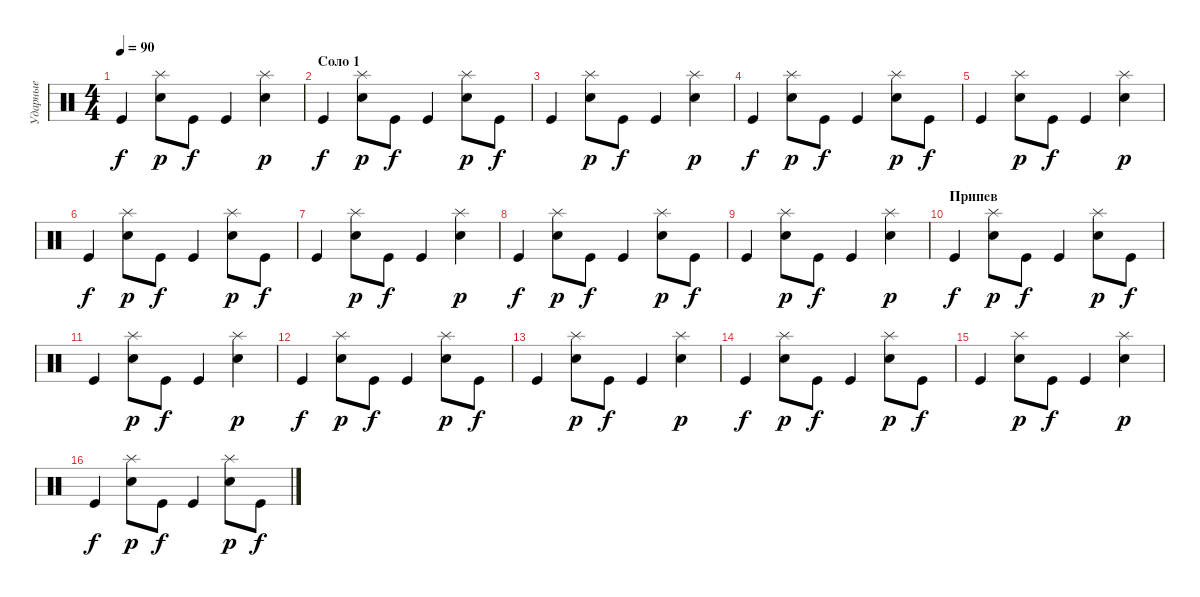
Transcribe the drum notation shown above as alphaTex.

\track ("Ударные" "Ударные") {instrument percussion}
\staff {score}
\articulation defaults
\ts (4 4)
\tempo 90
\clef neutral
\ks c "Kick (hit)".4{dy f}
("Splash (hit)" "Snare (hit) 2").8{dy p} "Kick (hit)".8{dy f} "Kick (hit)".4 ("Splash (hit)" "Snare (hit) 2").4{dy p} |
\section ("" "Соло 1")
"Kick (hit)".4{dy f} ("Splash (hit)" "Snare (hit) 2").8{dy p} "Kick (hit)".8{dy f} "Kick (hit)".4 ("Splash (hit)" "Snare (hit) 2").8{dy p} "Kick (hit)".8{dy f} |
"Kick (hit)".4 ("Splash (hit)" "Snare (hit) 2").8{dy p} "Kick (hit)".8{dy f} "Kick (hit)".4 ("Splash (hit)" "Snare (hit) 2").4{dy p} |
"Kick (hit)".4{dy f} ("Splash (hit)" "Snare (hit) 2").8{dy p} "Kick (hit)".8{dy f} "Kick (hit)".4 ("Splash (hit)" "Snare (hit) 2").8{dy p} "Kick (hit)".8{dy f} |
"Kick (hit)".4 ("Splash (hit)" "Snare (hit) 2").8{dy p} "Kick (hit)".8{dy f} "Kick (hit)".4 ("Splash (hit)" "Snare (hit) 2").4{dy p} |
"Kick (hit)".4{dy f} ("Splash (hit)" "Snare (hit) 2").8{dy p} "Kick (hit)".8{dy f} "Kick (hit)".4 ("Splash (hit)" "Snare (hit) 2").8{dy p} "Kick (hit)".8{dy f} |
"Kick (hit)".4 ("Splash (hit)" "Snare (hit) 2").8{dy p} "Kick (hit)".8{dy f} "Kick (hit)".4 ("Splash (hit)" "Snare (hit) 2").4{dy p} |
"Kick (hit)".4{dy f} ("Splash (hit)" "Snare (hit) 2").8{dy p} "Kick (hit)".8{dy f} "Kick (hit)".4 ("Splash (hit)" "Snare (hit) 2").8{dy p} "Kick (hit)".8{dy f} |
"Kick (hit)".4 ("Splash (hit)" "Snare (hit) 2").8{dy p} "Kick (hit)".8{dy f} "Kick (hit)".4 ("Splash (hit)" "Snare (hit) 2").4{dy p} |
\section ("" "Припев")
"Kick (hit)".4{dy f} ("Splash (hit)" "Snare (hit) 2").8{dy p} "Kick (hit)".8{dy f} "Kick (hit)".4 ("Splash (hit)" "Snare (hit) 2").8{dy p} "Kick (hit)".8{dy f} |
"Kick (hit)".4 ("Splash (hit)" "Snare (hit) 2").8{dy p} "Kick (hit)".8{dy f} "Kick (hit)".4 ("Splash (hit)" "Snare (hit) 2").4{dy p} |
"Kick (hit)".4{dy f} ("Splash (hit)" "Snare (hit) 2").8{dy p} "Kick (hit)".8{dy f} "Kick (hit)".4 ("Splash (hit)" "Snare (hit) 2").8{dy p} "Kick (hit)".8{dy f} |
"Kick (hit)".4 ("Splash (hit)" "Snare (hit) 2").8{dy p} "Kick (hit)".8{dy f} "Kick (hit)".4 ("Splash (hit)" "Snare (hit) 2").4{dy p} |
"Kick (hit)".4{dy f} ("Splash (hit)" "Snare (hit) 2").8{dy p} "Kick (hit)".8{dy f} "Kick (hit)".4 ("Splash (hit)" "Snare (hit) 2").8{dy p} "Kick (hit)".8{dy f} |
"Kick (hit)".4 ("Splash (hit)" "Snare (hit) 2").8{dy p} "Kick (hit)".8{dy f} "Kick (hit)".4 ("Splash (hit)" "Snare (hit) 2").4{dy p} |
"Kick (hit)".4{dy f} ("Splash (hit)" "Snare (hit) 2").8{dy p} "Kick (hit)".8{dy f} "Kick (hit)".4 ("Splash (hit)" "Snare (hit) 2").8{dy p} "Kick (hit)".8{dy f}
